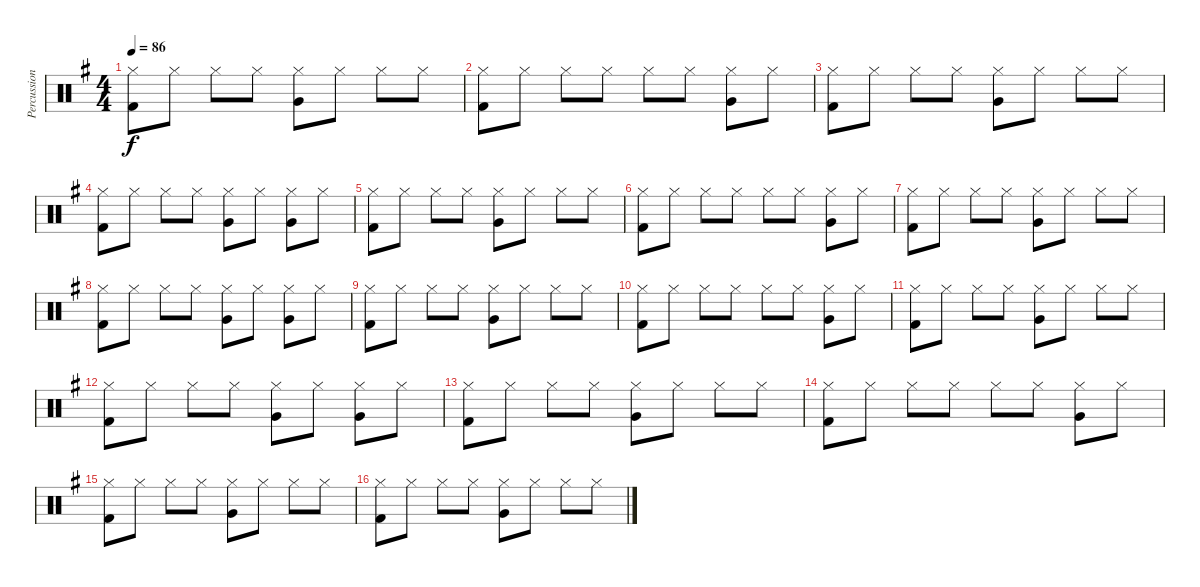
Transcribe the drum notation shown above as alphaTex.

\track ("Percussions" "Percussion") {instrument percussion}
\staff {score}
\articulation defaults
\ts (4 4)
\tempo 86
\clef neutral
\ks g
("Hi-Hat (closed)" "Kick (hit) 2").8{dy f} "Hi-Hat (closed)".8 "Hi-Hat (closed)".8 "Hi-Hat (closed)".8 ("Hi-Hat (closed)" "Very Low Tom (hit)").8 "Hi-Hat (closed)".8 "Hi-Hat (closed)".8 "Hi-Hat (closed)".8 |
("Hi-Hat (closed)" "Kick (hit) 2").8 "Hi-Hat (closed)".8 "Hi-Hat (closed)".8 "Hi-Hat (closed)".8 "Hi-Hat (closed)".8 "Hi-Hat (closed)".8 ("Hi-Hat (closed)" "Very Low Tom (hit)").8 "Hi-Hat (closed)".8 |
("Hi-Hat (closed)" "Kick (hit) 2").8 "Hi-Hat (closed)".8 "Hi-Hat (closed)".8 "Hi-Hat (closed)".8 ("Hi-Hat (closed)" "Very Low Tom (hit)").8 "Hi-Hat (closed)".8 "Hi-Hat (closed)".8 "Hi-Hat (closed)".8 |
("Hi-Hat (closed)" "Kick (hit) 2").8 "Hi-Hat (closed)".8 "Hi-Hat (closed)".8 "Hi-Hat (closed)".8 ("Hi-Hat (closed)" "Very Low Tom (hit)").8 "Hi-Hat (closed)".8 ("Hi-Hat (closed)" "Very Low Tom (hit)").8 "Hi-Hat (closed)".8 |
("Hi-Hat (closed)" "Kick (hit) 2").8 "Hi-Hat (closed)".8 "Hi-Hat (closed)".8 "Hi-Hat (closed)".8 ("Hi-Hat (closed)" "Very Low Tom (hit)").8 "Hi-Hat (closed)".8 "Hi-Hat (closed)".8 "Hi-Hat (closed)".8 |
("Hi-Hat (closed)" "Kick (hit) 2").8 "Hi-Hat (closed)".8 "Hi-Hat (closed)".8 "Hi-Hat (closed)".8 "Hi-Hat (closed)".8 "Hi-Hat (closed)".8 ("Hi-Hat (closed)" "Very Low Tom (hit)").8 "Hi-Hat (closed)".8 |
("Hi-Hat (closed)" "Kick (hit) 2").8 "Hi-Hat (closed)".8 "Hi-Hat (closed)".8 "Hi-Hat (closed)".8 ("Hi-Hat (closed)" "Very Low Tom (hit)").8 "Hi-Hat (closed)".8 "Hi-Hat (closed)".8 "Hi-Hat (closed)".8 |
("Hi-Hat (closed)" "Kick (hit) 2").8 "Hi-Hat (closed)".8 "Hi-Hat (closed)".8 "Hi-Hat (closed)".8 ("Hi-Hat (closed)" "Very Low Tom (hit)").8 "Hi-Hat (closed)".8 ("Hi-Hat (closed)" "Very Low Tom (hit)").8 "Hi-Hat (closed)".8 |
("Hi-Hat (closed)" "Kick (hit) 2").8 "Hi-Hat (closed)".8 "Hi-Hat (closed)".8 "Hi-Hat (closed)".8 ("Hi-Hat (closed)" "Very Low Tom (hit)").8 "Hi-Hat (closed)".8 "Hi-Hat (closed)".8 "Hi-Hat (closed)".8 |
("Hi-Hat (closed)" "Kick (hit) 2").8 "Hi-Hat (closed)".8 "Hi-Hat (closed)".8 "Hi-Hat (closed)".8 "Hi-Hat (closed)".8 "Hi-Hat (closed)".8 ("Hi-Hat (closed)" "Very Low Tom (hit)").8 "Hi-Hat (closed)".8 |
("Hi-Hat (closed)" "Kick (hit) 2").8 "Hi-Hat (closed)".8 "Hi-Hat (closed)".8 "Hi-Hat (closed)".8 ("Hi-Hat (closed)" "Very Low Tom (hit)").8 "Hi-Hat (closed)".8 "Hi-Hat (closed)".8 "Hi-Hat (closed)".8 |
("Hi-Hat (closed)" "Kick (hit) 2").8 "Hi-Hat (closed)".8 "Hi-Hat (closed)".8 "Hi-Hat (closed)".8 ("Hi-Hat (closed)" "Very Low Tom (hit)").8 "Hi-Hat (closed)".8 ("Hi-Hat (closed)" "Very Low Tom (hit)").8 "Hi-Hat (closed)".8 |
("Hi-Hat (closed)" "Kick (hit) 2").8 "Hi-Hat (closed)".8 "Hi-Hat (closed)".8 "Hi-Hat (closed)".8 ("Hi-Hat (closed)" "Very Low Tom (hit)").8 "Hi-Hat (closed)".8 "Hi-Hat (closed)".8 "Hi-Hat (closed)".8 |
("Hi-Hat (closed)" "Kick (hit) 2").8 "Hi-Hat (closed)".8 "Hi-Hat (closed)".8 "Hi-Hat (closed)".8 "Hi-Hat (closed)".8 "Hi-Hat (closed)".8 ("Hi-Hat (closed)" "Very Low Tom (hit)").8 "Hi-Hat (closed)".8 |
("Hi-Hat (closed)" "Kick (hit) 2").8 "Hi-Hat (closed)".8 "Hi-Hat (closed)".8 "Hi-Hat (closed)".8 ("Hi-Hat (closed)" "Very Low Tom (hit)").8 "Hi-Hat (closed)".8 "Hi-Hat (closed)".8 "Hi-Hat (closed)".8 |
("Hi-Hat (closed)" "Kick (hit) 2").8 "Hi-Hat (closed)".8 "Hi-Hat (closed)".8 "Hi-Hat (closed)".8 ("Hi-Hat (closed)" "Very Low Tom (hit)").8 "Hi-Hat (closed)".8 "Hi-Hat (closed)".8 "Hi-Hat (closed)".8
